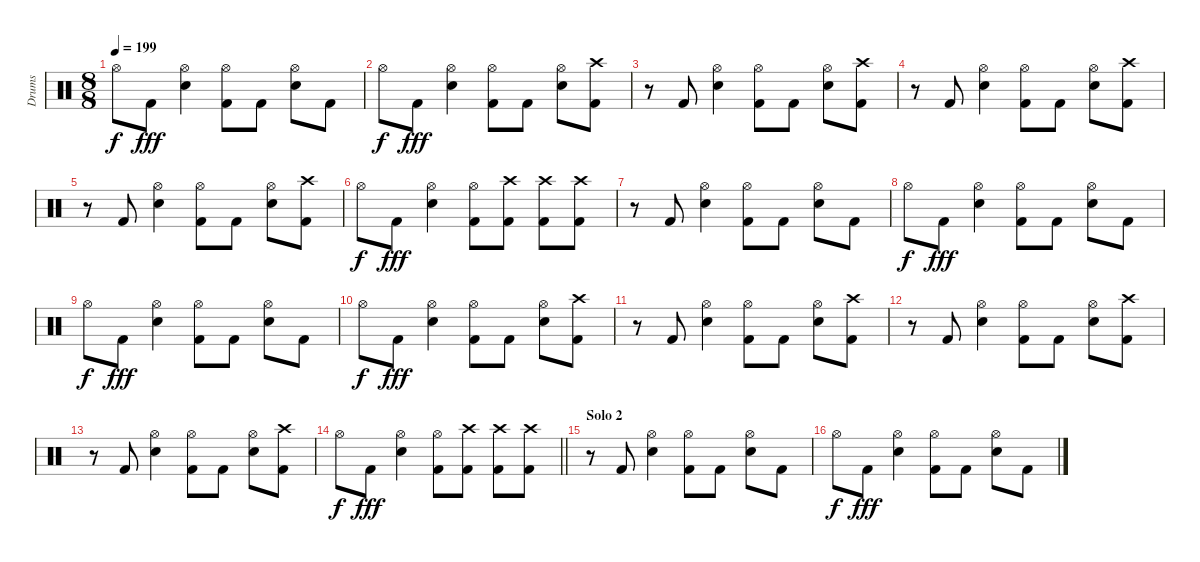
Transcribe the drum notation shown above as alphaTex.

\track ("Drums" "Drums") {instrument percussion}
\staff {score}
\articulation defaults
\ts (8 8)
\tempo 199
\clef neutral
\ks c "Hi-Hat (open)".8{dy f} "Kick (hit) 2".8{dy fff}
("Hi-Hat (open)" "Snare (hit) 2").4 ("Hi-Hat (open)" "Kick (hit) 2").8 "Kick (hit) 2".8 ("Hi-Hat (open)" "Snare (hit) 2").8 "Kick (hit) 2".8 |
"Hi-Hat (open)".8{dy f} "Kick (hit) 2".8{dy fff} ("Hi-Hat (open)" "Snare (hit) 2").4 ("Hi-Hat (open)" "Kick (hit) 2").8 "Kick (hit) 2".8 ("Hi-Hat (open)" "Snare (hit) 2").8 ("Crash high (hit)" "Kick (hit) 2").8 |
r.8 "Kick (hit) 2".8 ("Hi-Hat (open)" "Snare (hit) 2").4 ("Hi-Hat (open)" "Kick (hit) 2").8 "Kick (hit) 2".8 ("Hi-Hat (open)" "Snare (hit) 2").8 ("Crash high (hit)" "Kick (hit) 2").8 |
r.8 "Kick (hit) 2".8 ("Hi-Hat (open)" "Snare (hit) 2").4 ("Hi-Hat (open)" "Kick (hit) 2").8 "Kick (hit) 2".8 ("Hi-Hat (open)" "Snare (hit) 2").8 ("Crash high (hit)" "Kick (hit) 2").8 |
r.8 "Kick (hit) 2".8 ("Hi-Hat (open)" "Snare (hit) 2").4 ("Hi-Hat (open)" "Kick (hit) 2").8 "Kick (hit) 2".8 ("Hi-Hat (open)" "Snare (hit) 2").8 ("Crash high (hit)" "Kick (hit) 2").8 |
"Hi-Hat (open)".8{dy f} "Kick (hit) 2".8{dy fff} ("Hi-Hat (open)" "Snare (hit) 2").4 ("Hi-Hat (open)" "Kick (hit) 2").8 ("Crash high (hit)" "Kick (hit) 2").8 ("Crash high (hit)" "Kick (hit) 2").8 ("Crash high (hit)" "Kick (hit) 2").8 |
r.8 "Kick (hit) 2".8 ("Hi-Hat (open)" "Snare (hit) 2").4 ("Hi-Hat (open)" "Kick (hit) 2").8 "Kick (hit) 2".8 ("Hi-Hat (open)" "Snare (hit) 2").8 "Kick (hit) 2".8 |
"Hi-Hat (open)".8{dy f} "Kick (hit) 2".8{dy fff} ("Hi-Hat (open)" "Snare (hit) 2").4 ("Hi-Hat (open)" "Kick (hit) 2").8 "Kick (hit) 2".8 ("Hi-Hat (open)" "Snare (hit) 2").8 "Kick (hit) 2".8 |
"Hi-Hat (open)".8{dy f} "Kick (hit) 2".8{dy fff} ("Hi-Hat (open)" "Snare (hit) 2").4 ("Hi-Hat (open)" "Kick (hit) 2").8 "Kick (hit) 2".8 ("Hi-Hat (open)" "Snare (hit) 2").8 "Kick (hit) 2".8 |
"Hi-Hat (open)".8{dy f} "Kick (hit) 2".8{dy fff} ("Hi-Hat (open)" "Snare (hit) 2").4 ("Hi-Hat (open)" "Kick (hit) 2").8 "Kick (hit) 2".8 ("Hi-Hat (open)" "Snare (hit) 2").8 ("Crash high (hit)" "Kick (hit) 2").8 |
r.8 "Kick (hit) 2".8 ("Hi-Hat (open)" "Snare (hit) 2").4 ("Hi-Hat (open)" "Kick (hit) 2").8 "Kick (hit) 2".8 ("Hi-Hat (open)" "Snare (hit) 2").8 ("Crash high (hit)" "Kick (hit) 2").8 |
r.8 "Kick (hit) 2".8 ("Hi-Hat (open)" "Snare (hit) 2").4 ("Hi-Hat (open)" "Kick (hit) 2").8 "Kick (hit) 2".8 ("Hi-Hat (open)" "Snare (hit) 2").8 ("Crash high (hit)" "Kick (hit) 2").8 |
r.8 "Kick (hit) 2".8 ("Hi-Hat (open)" "Snare (hit) 2").4 ("Hi-Hat (open)" "Kick (hit) 2").8 "Kick (hit) 2".8 ("Hi-Hat (open)" "Snare (hit) 2").8 ("Crash high (hit)" "Kick (hit) 2").8 |
\barLineRight lightlight "Hi-Hat (open)".8{dy f} "Kick (hit) 2".8{dy fff}
("Hi-Hat (open)" "Snare (hit) 2").4 ("Hi-Hat (open)" "Kick (hit) 2").8 ("Crash high (hit)" "Kick (hit) 2").8 ("Crash high (hit)" "Kick (hit) 2").8 ("Crash high (hit)" "Kick (hit) 2").8 |
\section ("" "Solo 2")
r.8 "Kick (hit) 2".8 ("Hi-Hat (open)" "Snare (hit) 2").4 ("Hi-Hat (open)" "Kick (hit) 2").8 "Kick (hit) 2".8 ("Hi-Hat (open)" "Snare (hit) 2").8 "Kick (hit) 2".8 |
"Hi-Hat (open)".8{dy f} "Kick (hit) 2".8{dy fff} ("Hi-Hat (open)" "Snare (hit) 2").4 ("Hi-Hat (open)" "Kick (hit) 2").8 "Kick (hit) 2".8 ("Hi-Hat (open)" "Snare (hit) 2").8 "Kick (hit) 2".8
